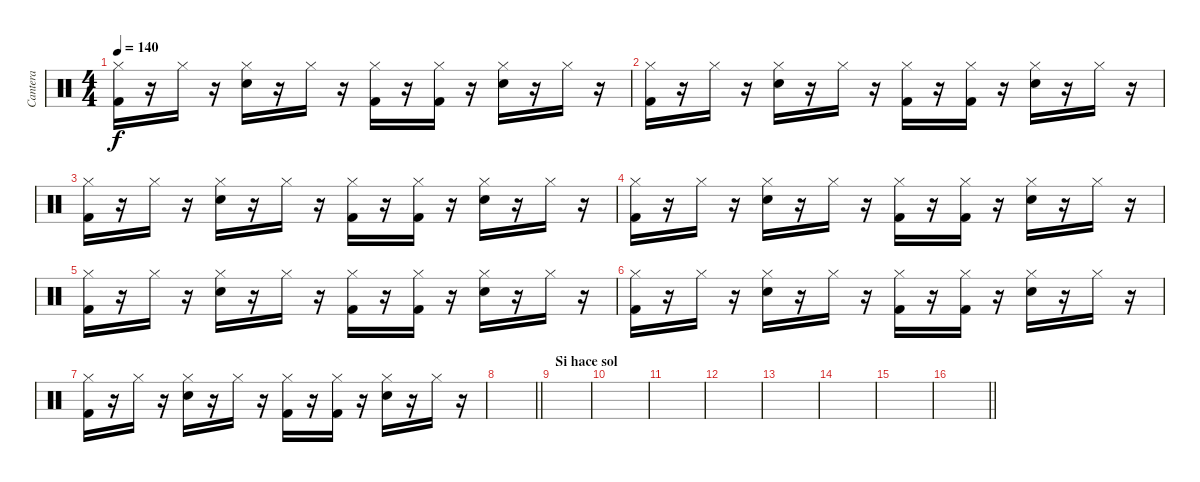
\track ("Cantera" "Cantera") {instrument percussion}
\staff {score}
\articulation defaults
\ts (4 4)
\tempo 140
\clef neutral
\ks c
("Hi-Hat (closed)" "Kick (hit) 2").16{dy f} r.16 "Hi-Hat (closed)".16 r.16 ("Hi-Hat (closed)" "Snare (hit) 2").16 r.16 "Hi-Hat (closed)".16 r.16 ("Hi-Hat (closed)" "Kick (hit) 2").16 r.16 ("Hi-Hat (closed)" "Kick (hit) 2").16 r.16 ("Hi-Hat (closed)" "Snare (hit) 2").16 r.16 "Hi-Hat (closed)".16 r.16 |
("Hi-Hat (closed)" "Kick (hit) 2").16 r.16 "Hi-Hat (closed)".16 r.16 ("Hi-Hat (closed)" "Snare (hit) 2").16 r.16 "Hi-Hat (closed)".16 r.16 ("Hi-Hat (closed)" "Kick (hit) 2").16 r.16 ("Hi-Hat (closed)" "Kick (hit) 2").16 r.16 ("Hi-Hat (closed)" "Snare (hit) 2").16 r.16 "Hi-Hat (closed)".16 r.16 |
("Hi-Hat (closed)" "Kick (hit) 2").16 r.16 "Hi-Hat (closed)".16 r.16 ("Hi-Hat (closed)" "Snare (hit) 2").16 r.16 "Hi-Hat (closed)".16 r.16 ("Hi-Hat (closed)" "Kick (hit) 2").16 r.16 ("Hi-Hat (closed)" "Kick (hit) 2").16 r.16 ("Hi-Hat (closed)" "Snare (hit) 2").16 r.16 "Hi-Hat (closed)".16 r.16 |
("Hi-Hat (closed)" "Kick (hit) 2").16 r.16 "Hi-Hat (closed)".16 r.16 ("Hi-Hat (closed)" "Snare (hit) 2").16 r.16 "Hi-Hat (closed)".16 r.16 ("Hi-Hat (closed)" "Kick (hit) 2").16 r.16 ("Hi-Hat (closed)" "Kick (hit) 2").16 r.16 ("Hi-Hat (closed)" "Snare (hit) 2").16 r.16 "Hi-Hat (closed)".16 r.16 |
("Hi-Hat (closed)" "Kick (hit) 2").16 r.16 "Hi-Hat (closed)".16 r.16 ("Hi-Hat (closed)" "Snare (hit) 2").16 r.16 "Hi-Hat (closed)".16 r.16 ("Hi-Hat (closed)" "Kick (hit) 2").16 r.16 ("Hi-Hat (closed)" "Kick (hit) 2").16 r.16 ("Hi-Hat (closed)" "Snare (hit) 2").16 r.16 "Hi-Hat (closed)".16 r.16 |
("Hi-Hat (closed)" "Kick (hit) 2").16 r.16 "Hi-Hat (closed)".16 r.16 ("Hi-Hat (closed)" "Snare (hit) 2").16 r.16 "Hi-Hat (closed)".16 r.16 ("Hi-Hat (closed)" "Kick (hit) 2").16 r.16 ("Hi-Hat (closed)" "Kick (hit) 2").16 r.16 ("Hi-Hat (closed)" "Snare (hit) 2").16 r.16 "Hi-Hat (closed)".16 r.16 |
("Hi-Hat (closed)" "Kick (hit) 2").16 r.16 "Hi-Hat (closed)".16 r.16 ("Hi-Hat (closed)" "Snare (hit) 2").16 r.16 "Hi-Hat (closed)".16 r.16 ("Hi-Hat (closed)" "Kick (hit) 2").16 r.16 ("Hi-Hat (closed)" "Kick (hit) 2").16 r.16 ("Hi-Hat (closed)" "Snare (hit) 2").16 r.16 "Hi-Hat (closed)".16 r.16 |
\barLineRight lightlight
|
\section ("" "Si hace sol")
|
|
|
|
|
|
|
\barLineRight lightlight
